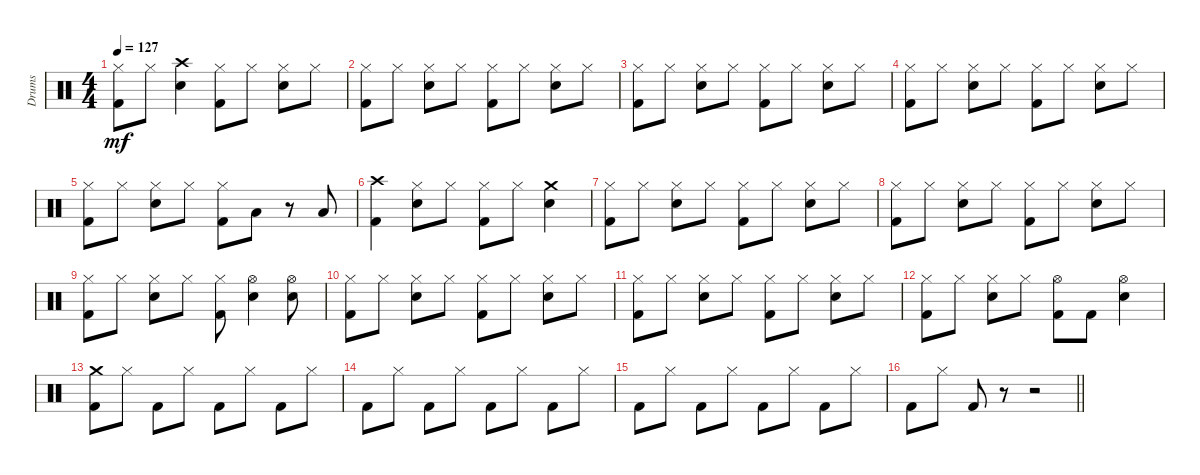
\track ("Drums" "Drums") {instrument percussion}
\staff {score}
\articulation defaults
\ts (4 4)
\tempo 127
\clef neutral
\ks c
("Hi-Hat (closed)" "Kick (hit) 2").8{dy mf} "Hi-Hat (closed)".8 ("Crash high (hit)" "Electric Snare (hit)").4 ("Hi-Hat (closed)" "Kick (hit) 2").8 "Hi-Hat (closed)".8 ("Hi-Hat (closed)" "Electric Snare (hit)").8 "Hi-Hat (closed)".8 |
("Hi-Hat (closed)" "Kick (hit) 2").8 "Hi-Hat (closed)".8 ("Hi-Hat (closed)" "Electric Snare (hit)").8 "Hi-Hat (closed)".8 ("Hi-Hat (closed)" "Kick (hit) 2").8 "Hi-Hat (closed)".8 ("Hi-Hat (closed)" "Electric Snare (hit)").8 "Hi-Hat (closed)".8 |
("Hi-Hat (closed)" "Kick (hit) 2").8 "Hi-Hat (closed)".8 ("Hi-Hat (closed)" "Electric Snare (hit)").8 "Hi-Hat (closed)".8 ("Hi-Hat (closed)" "Kick (hit) 2").8 "Hi-Hat (closed)".8 ("Hi-Hat (closed)" "Electric Snare (hit)").8 "Hi-Hat (closed)".8 |
("Hi-Hat (closed)" "Kick (hit) 2").8 "Hi-Hat (closed)".8 ("Hi-Hat (closed)" "Electric Snare (hit)").8 "Hi-Hat (closed)".8 ("Hi-Hat (closed)" "Kick (hit) 2").8 "Hi-Hat (closed)".8 ("Hi-Hat (closed)" "Electric Snare (hit)").8 "Hi-Hat (closed)".8 |
("Hi-Hat (closed)" "Kick (hit) 2").8 "Hi-Hat (closed)".8 ("Hi-Hat (closed)" "Electric Snare (hit)").8 "Hi-Hat (closed)".8 ("Hi-Hat (closed)" "Kick (hit) 2").8 "Low Tom (hit)".8 r.8 "Low Tom (hit)".8 |
("Crash high (hit)" "Kick (hit) 2").4 ("Hi-Hat (closed)" "Electric Snare (hit)").8 "Hi-Hat (closed)".8 ("Hi-Hat (closed)" "Kick (hit) 2").8 "Hi-Hat (closed)".8 ("Crash medium (hit)" "Electric Snare (hit)").4 |
("Hi-Hat (closed)" "Kick (hit) 2").8 "Hi-Hat (closed)".8 ("Hi-Hat (closed)" "Electric Snare (hit)").8 "Hi-Hat (closed)".8 ("Hi-Hat (closed)" "Kick (hit) 2").8 "Hi-Hat (closed)".8 ("Hi-Hat (closed)" "Electric Snare (hit)").8 "Hi-Hat (closed)".8 |
("Hi-Hat (closed)" "Kick (hit) 2").8 "Hi-Hat (closed)".8 ("Hi-Hat (closed)" "Electric Snare (hit)").8 "Hi-Hat (closed)".8 ("Hi-Hat (closed)" "Kick (hit) 2").8 "Hi-Hat (closed)".8 ("Hi-Hat (closed)" "Electric Snare (hit)").8 "Hi-Hat (closed)".8 |
("Hi-Hat (closed)" "Kick (hit) 2").8 "Hi-Hat (closed)".8 ("Hi-Hat (closed)" "Electric Snare (hit)").8 "Hi-Hat (closed)".8 ("Hi-Hat (closed)" "Kick (hit) 2").8 ("Hi-Hat (open)" "Electric Snare (hit)").4 ("Hi-Hat (open)" "Electric Snare (hit)").8 |
("Hi-Hat (closed)" "Kick (hit) 2").8 "Hi-Hat (closed)".8 ("Hi-Hat (closed)" "Electric Snare (hit)").8 "Hi-Hat (closed)".8 ("Hi-Hat (closed)" "Kick (hit) 2").8 "Hi-Hat (closed)".8 ("Hi-Hat (closed)" "Electric Snare (hit)").8 "Hi-Hat (closed)".8 |
("Hi-Hat (closed)" "Kick (hit) 2").8 "Hi-Hat (closed)".8 ("Hi-Hat (closed)" "Electric Snare (hit)").8 "Hi-Hat (closed)".8 ("Hi-Hat (closed)" "Kick (hit) 2").8 "Hi-Hat (closed)".8 ("Hi-Hat (closed)" "Electric Snare (hit)").8 "Hi-Hat (closed)".8 |
("Hi-Hat (closed)" "Kick (hit) 2").8 "Hi-Hat (closed)".8 ("Hi-Hat (closed)" "Electric Snare (hit)").8 "Hi-Hat (closed)".8 ("Hi-Hat (open)" "Kick (hit) 2").8 "Kick (hit) 2".8 ("Hi-Hat (open)" "Electric Snare (hit)").4 |
("Crash medium (hit)" "Kick (hit) 2").8 "Hi-Hat (closed)".8 "Kick (hit) 2".8 "Hi-Hat (closed)".8 "Kick (hit) 2".8 "Hi-Hat (closed)".8 "Kick (hit) 2".8 "Hi-Hat (closed)".8 |
"Kick (hit) 2".8 "Hi-Hat (closed)".8 "Kick (hit) 2".8 "Hi-Hat (closed)".8 "Kick (hit) 2".8 "Hi-Hat (closed)".8 "Kick (hit) 2".8 "Hi-Hat (closed)".8 |
"Kick (hit) 2".8 "Hi-Hat (closed)".8 "Kick (hit) 2".8 "Hi-Hat (closed)".8 "Kick (hit) 2".8 "Hi-Hat (closed)".8 "Kick (hit) 2".8 "Hi-Hat (closed)".8 |
\barLineRight lightlight "Kick (hit) 2".8 "Hi-Hat (closed)".8 "Kick (hit) 2".8
r.8 r.2
